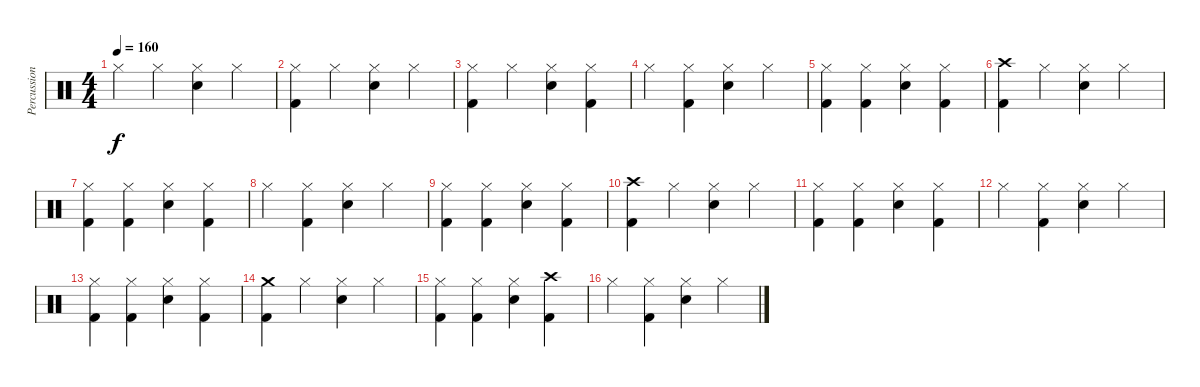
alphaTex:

\track ("Percussion" "Percussion") {instrument percussion}
\staff {score}
\articulation defaults
\ts (4 4)
\tempo 160
\clef neutral
\ks c "Hi-Hat (closed)".4{dy f} "Hi-Hat (closed)".4
("Hi-Hat (closed)" "Snare (hit) 2").4 "Hi-Hat (closed)".4 |
("Hi-Hat (closed)" "Kick (hit) 2").4 "Hi-Hat (closed)".4 ("Hi-Hat (closed)" "Snare (hit) 2").4 "Hi-Hat (closed)".4 |
("Hi-Hat (closed)" "Kick (hit) 2").4 "Hi-Hat (closed)".4 ("Hi-Hat (closed)" "Snare (hit) 2").4 ("Hi-Hat (closed)" "Kick (hit) 2").4 |
"Hi-Hat (closed)".4 ("Hi-Hat (closed)" "Kick (hit) 2").4 ("Hi-Hat (closed)" "Snare (hit) 2").4 "Hi-Hat (closed)".4 |
("Hi-Hat (closed)" "Kick (hit) 2").4 ("Hi-Hat (closed)" "Kick (hit) 2").4 ("Hi-Hat (closed)" "Snare (hit) 2").4 ("Hi-Hat (closed)" "Kick (hit) 2").4 |
("Crash high (hit)" "Kick (hit) 2").4 "Hi-Hat (closed)".4 ("Hi-Hat (closed)" "Snare (hit) 2").4 "Hi-Hat (closed)".4 |
("Hi-Hat (closed)" "Kick (hit) 2").4 ("Hi-Hat (closed)" "Kick (hit) 2").4 ("Hi-Hat (closed)" "Snare (hit) 2").4 ("Hi-Hat (closed)" "Kick (hit) 2").4 |
"Hi-Hat (closed)".4 ("Hi-Hat (closed)" "Kick (hit) 2").4 ("Hi-Hat (closed)" "Snare (hit) 2").4 "Hi-Hat (closed)".4 |
("Hi-Hat (closed)" "Kick (hit) 2").4 ("Hi-Hat (closed)" "Kick (hit) 2").4 ("Hi-Hat (closed)" "Snare (hit) 2").4 ("Hi-Hat (closed)" "Kick (hit) 2").4 |
("Crash high (hit)" "Kick (hit) 2").4 "Hi-Hat (closed)".4 ("Hi-Hat (closed)" "Snare (hit) 2").4 "Hi-Hat (closed)".4 |
("Hi-Hat (closed)" "Kick (hit) 2").4 ("Hi-Hat (closed)" "Kick (hit) 2").4 ("Hi-Hat (closed)" "Snare (hit) 2").4 ("Hi-Hat (closed)" "Kick (hit) 2").4 |
"Hi-Hat (closed)".4 ("Hi-Hat (closed)" "Kick (hit) 2").4 ("Hi-Hat (closed)" "Snare (hit) 2").4 "Hi-Hat (closed)".4 |
("Hi-Hat (closed)" "Kick (hit) 2").4 ("Hi-Hat (closed)" "Kick (hit) 2").4 ("Hi-Hat (closed)" "Snare (hit) 2").4 ("Hi-Hat (closed)" "Kick (hit) 2").4 |
("Crash medium (hit)" "Kick (hit) 2").4 "Hi-Hat (closed)".4 ("Hi-Hat (closed)" "Snare (hit) 2").4 "Hi-Hat (closed)".4 |
("Hi-Hat (closed)" "Kick (hit) 2").4 ("Hi-Hat (closed)" "Kick (hit) 2").4 ("Hi-Hat (closed)" "Snare (hit) 2").4 ("Crash high (hit)" "Kick (hit) 2").4 |
"Hi-Hat (closed)".4 ("Hi-Hat (closed)" "Kick (hit) 2").4 ("Hi-Hat (closed)" "Snare (hit) 2").4 "Hi-Hat (closed)".4
